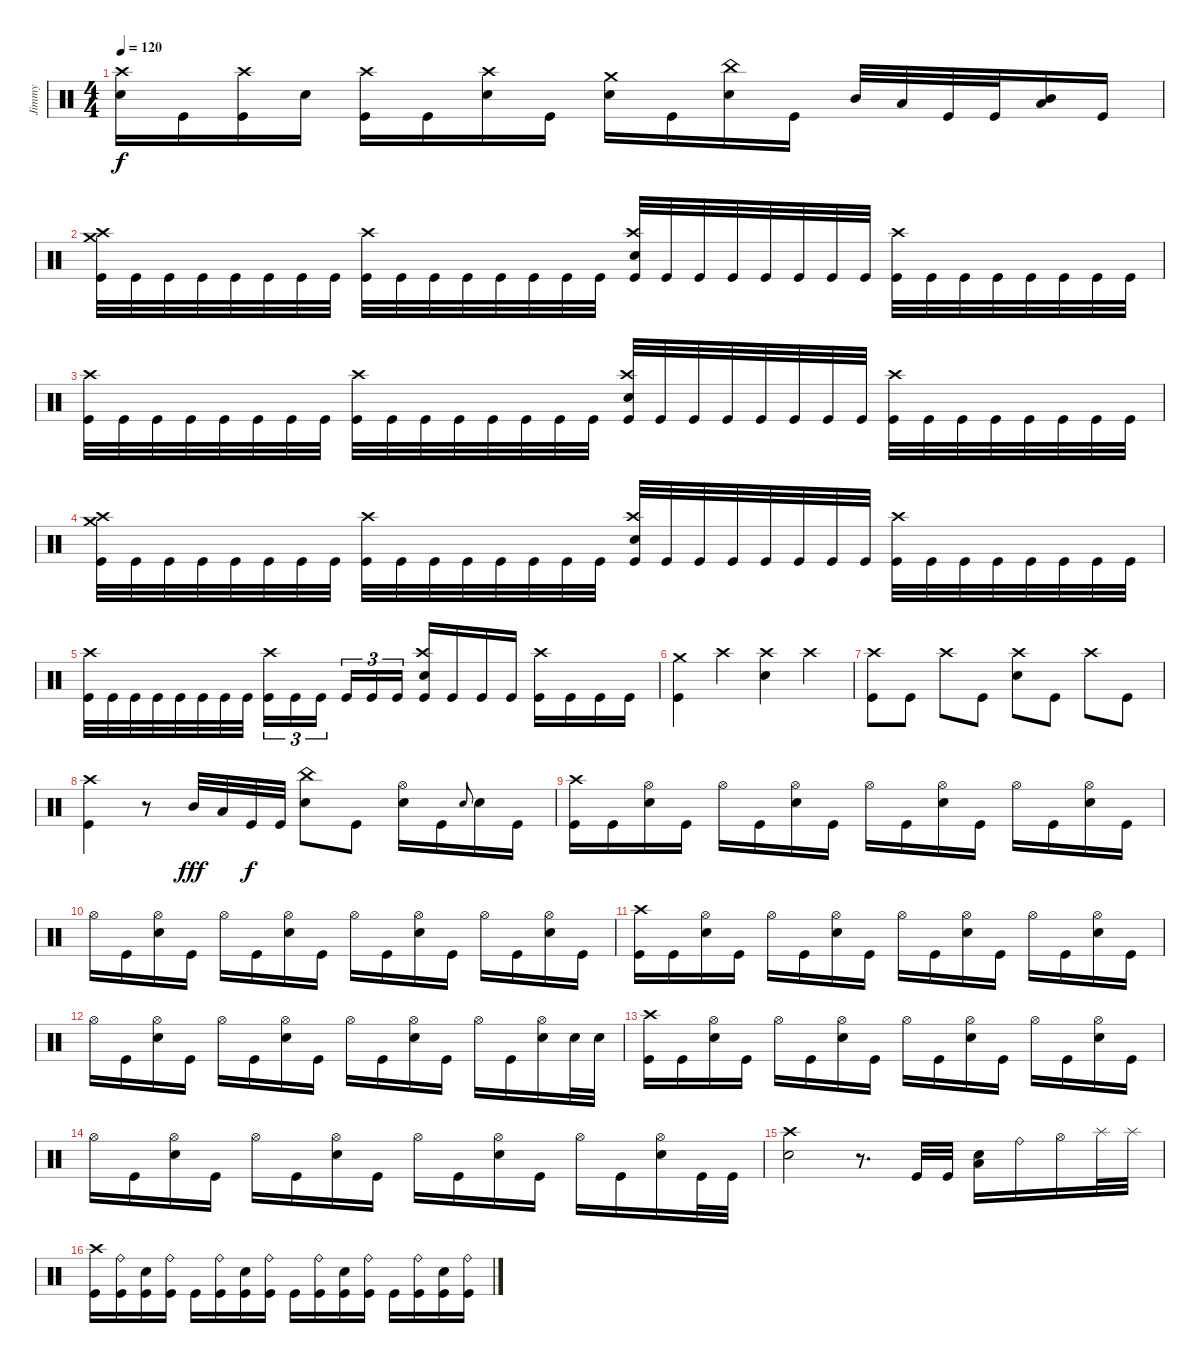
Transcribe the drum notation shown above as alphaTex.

\track ("Jimmy" "Jimmy") {instrument percussion}
\staff {score}
\articulation defaults
\ts (4 4)
\tempo 120
\clef neutral
\ks c
("Snare (hit) 2" "Crash high (hit)").16{dy f} "Kick (hit)".16 ("Kick (hit)" "Crash high (hit)").16 "Snare (hit) 2".16 ("Kick (hit)" "Crash high (hit)").16 "Kick (hit)".16 ("Snare (hit) 2" "Crash high (hit)").16 "Kick (hit)".16 ("Snare (hit) 2" "Crash medium (hit)").16 "Kick (hit)".16 ("Snare (hit) 2" "China (hit)").16 "Kick (hit)".16 "Mid Tom (hit)".32 "Low Tom (hit)".32 "Kick (hit)".32 "Kick (hit)".32 ("Mid Tom (hit)" "Low Tom (hit)").16 "Kick (hit)".16 |
("Kick (hit)" "Crash high (hit)" "Crash medium (hit)").32 "Kick (hit)".32 "Kick (hit)".32 "Kick (hit)".32 "Kick (hit)".32 "Kick (hit)".32 "Kick (hit)".32 "Kick (hit)".32 ("Kick (hit)" "Crash high (hit)").32 "Kick (hit)".32 "Kick (hit)".32 "Kick (hit)".32 "Kick (hit)".32 "Kick (hit)".32 "Kick (hit)".32 "Kick (hit)".32 ("Kick (hit)" "Crash high (hit)" "Snare (hit) 2").32 "Kick (hit)".32 "Kick (hit)".32 "Kick (hit)".32 "Kick (hit)".32 "Kick (hit)".32 "Kick (hit)".32 "Kick (hit)".32 ("Kick (hit)" "Crash high (hit)").32 "Kick (hit)".32 "Kick (hit)".32 "Kick (hit)".32 "Kick (hit)".32 "Kick (hit)".32 "Kick (hit)".32 "Kick (hit)".32 |
("Kick (hit)" "Crash high (hit)").32 "Kick (hit)".32 "Kick (hit)".32 "Kick (hit)".32 "Kick (hit)".32 "Kick (hit)".32 "Kick (hit)".32 "Kick (hit)".32 ("Kick (hit)" "Crash high (hit)").32 "Kick (hit)".32 "Kick (hit)".32 "Kick (hit)".32 "Kick (hit)".32 "Kick (hit)".32 "Kick (hit)".32 "Kick (hit)".32 ("Kick (hit)" "Crash high (hit)" "Snare (hit) 2").32 "Kick (hit)".32 "Kick (hit)".32 "Kick (hit)".32 "Kick (hit)".32 "Kick (hit)".32 "Kick (hit)".32 "Kick (hit)".32 ("Kick (hit)" "Crash high (hit)").32 "Kick (hit)".32 "Kick (hit)".32 "Kick (hit)".32 "Kick (hit)".32 "Kick (hit)".32 "Kick (hit)".32 "Kick (hit)".32 |
("Kick (hit)" "Crash high (hit)" "Crash medium (hit)").32 "Kick (hit)".32 "Kick (hit)".32 "Kick (hit)".32 "Kick (hit)".32 "Kick (hit)".32 "Kick (hit)".32 "Kick (hit)".32 ("Kick (hit)" "Crash high (hit)").32 "Kick (hit)".32 "Kick (hit)".32 "Kick (hit)".32 "Kick (hit)".32 "Kick (hit)".32 "Kick (hit)".32 "Kick (hit)".32 ("Kick (hit)" "Crash high (hit)" "Snare (hit) 2").32 "Kick (hit)".32 "Kick (hit)".32 "Kick (hit)".32 "Kick (hit)".32 "Kick (hit)".32 "Kick (hit)".32 "Kick (hit)".32 ("Kick (hit)" "Crash high (hit)").32 "Kick (hit)".32 "Kick (hit)".32 "Kick (hit)".32 "Kick (hit)".32 "Kick (hit)".32 "Kick (hit)".32 "Kick (hit)".32 |
("Kick (hit)" "Crash high (hit)").32 "Kick (hit)".32 "Kick (hit)".32 "Kick (hit)".32 "Kick (hit)".32 "Kick (hit)".32 "Kick (hit)".32 "Kick (hit)".32 ("Kick (hit)" "Crash high (hit)").16{tu (3 2)} "Kick (hit)".16{tu (3 2)} "Kick (hit)".16{tu (3 2) beam splitsecondary} "Kick (hit)".16{tu (3 2)} "Kick (hit)".16{tu (3 2)} "Kick (hit)".16{tu (3 2)} ("Kick (hit)" "Crash high (hit)" "Snare (hit) 2").16 "Kick (hit)".16 "Kick (hit)".16 "Kick (hit)".16 ("Kick (hit)" "Crash high (hit)").16 "Kick (hit)".16 "Kick (hit)".16 "Kick (hit)".16 |
("Kick (hit)" "Crash medium (hit)").4 "Crash high (hit)".4 ("Crash high (hit)" "Snare (hit) 2").4 "Crash high (hit)".4 |
("Kick (hit)" "Crash high (hit)").8 "Kick (hit)".8 "Crash high (hit)".8 "Kick (hit)".8 ("Snare (hit) 2" "Crash high (hit)").8 "Kick (hit)".8 "Crash high (hit)".8 "Kick (hit)".8 |
("Kick (hit)" "Crash high (hit)").4 r.8 "Mid Tom (hit)".32{dy fff} "Low Tom (hit)".32 "Kick (hit)".32{dy f} "Kick (hit)".32 ("Snare (hit) 2" "China (hit)").8 "Kick (hit)".8 ("Snare (hit) 2" "Hi-Hat (open)").16 "Kick (hit)".16 "Snare (hit) 2".8{gr onbeat} "Snare (hit) 2".16 "Kick (hit)".16 |
("Kick (hit)" "Crash high (hit)").16 "Kick (hit)".16 ("Hi-Hat (open)" "Snare (hit) 2").16 "Kick (hit)".16 "Hi-Hat (open)".16 "Kick (hit)".16 ("Hi-Hat (open)" "Snare (hit) 2").16 "Kick (hit)".16 "Hi-Hat (open)".16 "Kick (hit)".16 ("Hi-Hat (open)" "Snare (hit) 2").16 "Kick (hit)".16 "Hi-Hat (open)".16 "Kick (hit)".16 ("Hi-Hat (open)" "Snare (hit) 2").16 "Kick (hit)".16 |
"Hi-Hat (open)".16 "Kick (hit)".16 ("Hi-Hat (open)" "Snare (hit) 2").16 "Kick (hit)".16 "Hi-Hat (open)".16 "Kick (hit)".16 ("Hi-Hat (open)" "Snare (hit) 2").16 "Kick (hit)".16 "Hi-Hat (open)".16 "Kick (hit)".16 ("Hi-Hat (open)" "Snare (hit) 2").16 "Kick (hit)".16 "Hi-Hat (open)".16 "Kick (hit)".16 ("Hi-Hat (open)" "Snare (hit) 2").16 "Kick (hit)".16 |
("Kick (hit)" "Crash high (hit)").16 "Kick (hit)".16 ("Hi-Hat (open)" "Snare (hit) 2").16 "Kick (hit)".16 "Hi-Hat (open)".16 "Kick (hit)".16 ("Hi-Hat (open)" "Snare (hit) 2").16 "Kick (hit)".16 "Hi-Hat (open)".16 "Kick (hit)".16 ("Hi-Hat (open)" "Snare (hit) 2").16 "Kick (hit)".16 "Hi-Hat (open)".16 "Kick (hit)".16 ("Hi-Hat (open)" "Snare (hit) 2").16 "Kick (hit)".16 |
"Hi-Hat (open)".16 "Kick (hit)".16 ("Hi-Hat (open)" "Snare (hit) 2").16 "Kick (hit)".16 "Hi-Hat (open)".16 "Kick (hit)".16 ("Hi-Hat (open)" "Snare (hit) 2").16 "Kick (hit)".16 "Hi-Hat (open)".16 "Kick (hit)".16 ("Hi-Hat (open)" "Snare (hit) 2").16 "Kick (hit)".16 "Hi-Hat (open)".16 "Kick (hit)".16 ("Hi-Hat (open)" "Snare (hit) 2").16 "Snare (hit) 2".32 "Snare (hit) 2".32 |
("Kick (hit)" "Crash high (hit)").16 "Kick (hit)".16 ("Hi-Hat (open)" "Snare (hit) 2").16 "Kick (hit)".16 "Hi-Hat (open)".16 "Kick (hit)".16 ("Hi-Hat (open)" "Snare (hit) 2").16 "Kick (hit)".16 "Hi-Hat (open)".16 "Kick (hit)".16 ("Hi-Hat (open)" "Snare (hit) 2").16 "Kick (hit)".16 "Hi-Hat (open)".16 "Kick (hit)".16 ("Hi-Hat (open)" "Snare (hit) 2").16 "Kick (hit)".16 |
"Hi-Hat (open)".16 "Kick (hit)".16 ("Hi-Hat (open)" "Snare (hit) 2").16 "Kick (hit)".16 "Hi-Hat (open)".16 "Kick (hit)".16 ("Hi-Hat (open)" "Snare (hit) 2").16 "Kick (hit)".16 "Hi-Hat (open)".16 "Kick (hit)".16 ("Hi-Hat (open)" "Snare (hit) 2").16 "Kick (hit)".16 "Hi-Hat (open)".16 "Kick (hit)".16 ("Hi-Hat (open)" "Snare (hit) 2").16 "Kick (hit)".32 "Kick (hit)".32 |
("Snare (hit) 2" "Crash high (hit)").2 r.8{d} "Kick (hit)".32 "Kick (hit)".32 ("Low Tom (hit)" "Snare (hit) 2").16 "Ride (bell)".16 "Hi-Hat (open)".16 "Splash (hit)".32 "Splash (hit)".32 |
("Kick (hit)" "Crash high (hit)").16 ("Kick (hit)" "Ride (bell)").16 ("Kick (hit)" "Snare (hit) 2").16 ("Kick (hit)" "Ride (bell)").16 "Kick (hit)".16 ("Kick (hit)" "Ride (bell)").16 ("Kick (hit)" "Snare (hit) 2").16 ("Kick (hit)" "Ride (bell)").16 "Kick (hit)".16 ("Kick (hit)" "Ride (bell)").16 ("Kick (hit)" "Snare (hit) 2").16 ("Kick (hit)" "Ride (bell)").16 "Kick (hit)".16 ("Kick (hit)" "Ride (bell)").16 ("Kick (hit)" "Snare (hit) 2").16 ("Kick (hit)" "Ride (bell)").16
